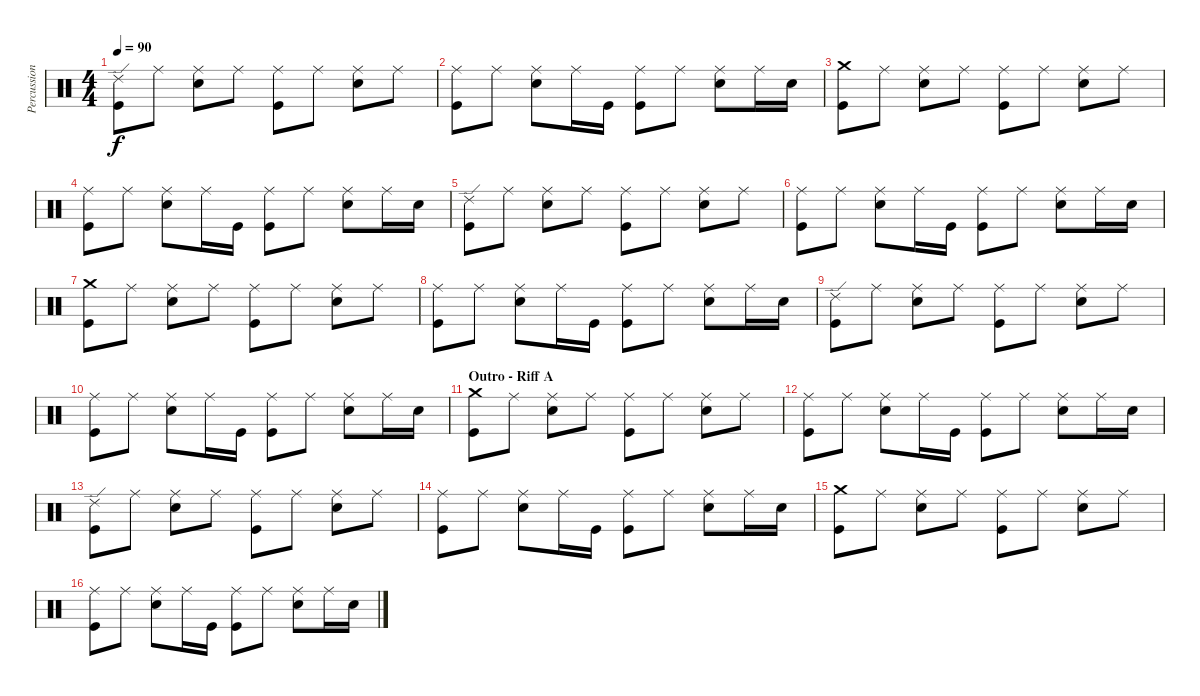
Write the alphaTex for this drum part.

\track ("Percussion (DK 0)" "Percussion") {instrument percussion}
\staff {score}
\articulation defaults
\ts (4 4)
\tempo 90
\clef neutral
\ks c
("Ride (edge) 2" "Kick (hit)").8{dy f} "Ride (middle)".8 ("Ride (middle)" "Electric Snare (hit)").8 "Ride (middle)".8 ("Ride (middle)" "Kick (hit)").8 "Ride (middle)".8 ("Ride (middle)" "Electric Snare (hit)").8 "Ride (middle)".8 |
("Ride (middle)" "Kick (hit)").8 "Ride (middle)".8 ("Ride (middle)" "Electric Snare (hit)").8 "Ride (middle)".16 "Kick (hit)".16 ("Ride (middle)" "Kick (hit)").8 "Ride (middle)".8 ("Ride (middle)" "Electric Snare (hit)").8 "Ride (middle)".16 "Electric Snare (hit)".16 |
("Crash medium (hit)" "Kick (hit)").8 "Ride (middle)".8 ("Ride (middle)" "Electric Snare (hit)").8 "Ride (middle)".8 ("Ride (middle)" "Kick (hit)").8 "Ride (middle)".8 ("Ride (middle)" "Electric Snare (hit)").8 "Ride (middle)".8 |
("Ride (middle)" "Kick (hit)").8 "Ride (middle)".8 ("Ride (middle)" "Electric Snare (hit)").8 "Ride (middle)".16 "Kick (hit)".16 ("Ride (middle)" "Kick (hit)").8 "Ride (middle)".8 ("Ride (middle)" "Electric Snare (hit)").8 "Ride (middle)".16 "Electric Snare (hit)".16 |
("Ride (edge) 2" "Kick (hit)").8 "Ride (middle)".8 ("Ride (middle)" "Electric Snare (hit)").8 "Ride (middle)".8 ("Ride (middle)" "Kick (hit)").8 "Ride (middle)".8 ("Ride (middle)" "Electric Snare (hit)").8 "Ride (middle)".8 |
("Ride (middle)" "Kick (hit)").8 "Ride (middle)".8 ("Ride (middle)" "Electric Snare (hit)").8 "Ride (middle)".16 "Kick (hit)".16 ("Ride (middle)" "Kick (hit)").8 "Ride (middle)".8 ("Ride (middle)" "Electric Snare (hit)").8 "Ride (middle)".16 "Electric Snare (hit)".16 |
("Crash medium (hit)" "Kick (hit)").8 "Ride (middle)".8 ("Ride (middle)" "Electric Snare (hit)").8 "Ride (middle)".8 ("Ride (middle)" "Kick (hit)").8 "Ride (middle)".8 ("Ride (middle)" "Electric Snare (hit)").8 "Ride (middle)".8 |
("Ride (middle)" "Kick (hit)").8 "Ride (middle)".8 ("Ride (middle)" "Electric Snare (hit)").8 "Ride (middle)".16 "Kick (hit)".16 ("Ride (middle)" "Kick (hit)").8 "Ride (middle)".8 ("Ride (middle)" "Electric Snare (hit)").8 "Ride (middle)".16 "Electric Snare (hit)".16 |
("Ride (edge) 2" "Kick (hit)").8 "Ride (middle)".8 ("Ride (middle)" "Electric Snare (hit)").8 "Ride (middle)".8 ("Ride (middle)" "Kick (hit)").8 "Ride (middle)".8 ("Ride (middle)" "Electric Snare (hit)").8 "Ride (middle)".8 |
("Ride (middle)" "Kick (hit)").8 "Ride (middle)".8 ("Ride (middle)" "Electric Snare (hit)").8 "Ride (middle)".16 "Kick (hit)".16 ("Ride (middle)" "Kick (hit)").8 "Ride (middle)".8 ("Ride (middle)" "Electric Snare (hit)").8 "Ride (middle)".16 "Electric Snare (hit)".16 |
\section ("" "Outro - Riff A")
("Crash medium (hit)" "Kick (hit)").8 "Ride (middle)".8 ("Ride (middle)" "Electric Snare (hit)").8 "Ride (middle)".8 ("Ride (middle)" "Kick (hit)").8 "Ride (middle)".8 ("Ride (middle)" "Electric Snare (hit)").8 "Ride (middle)".8 |
("Ride (middle)" "Kick (hit)").8 "Ride (middle)".8 ("Ride (middle)" "Electric Snare (hit)").8 "Ride (middle)".16 "Kick (hit)".16 ("Ride (middle)" "Kick (hit)").8 "Ride (middle)".8 ("Ride (middle)" "Electric Snare (hit)").8 "Ride (middle)".16 "Electric Snare (hit)".16 |
("Ride (edge) 2" "Kick (hit)").8 "Ride (middle)".8 ("Ride (middle)" "Electric Snare (hit)").8 "Ride (middle)".8 ("Ride (middle)" "Kick (hit)").8 "Ride (middle)".8 ("Ride (middle)" "Electric Snare (hit)").8 "Ride (middle)".8 |
("Ride (middle)" "Kick (hit)").8 "Ride (middle)".8 ("Ride (middle)" "Electric Snare (hit)").8 "Ride (middle)".16 "Kick (hit)".16 ("Ride (middle)" "Kick (hit)").8 "Ride (middle)".8 ("Ride (middle)" "Electric Snare (hit)").8 "Ride (middle)".16 "Electric Snare (hit)".16 |
("Crash medium (hit)" "Kick (hit)").8 "Ride (middle)".8 ("Ride (middle)" "Electric Snare (hit)").8 "Ride (middle)".8 ("Ride (middle)" "Kick (hit)").8 "Ride (middle)".8 ("Ride (middle)" "Electric Snare (hit)").8 "Ride (middle)".8 |
("Ride (middle)" "Kick (hit)").8 "Ride (middle)".8 ("Ride (middle)" "Electric Snare (hit)").8 "Ride (middle)".16 "Kick (hit)".16 ("Ride (middle)" "Kick (hit)").8 "Ride (middle)".8 ("Ride (middle)" "Electric Snare (hit)").8 "Ride (middle)".16 "Electric Snare (hit)".16
